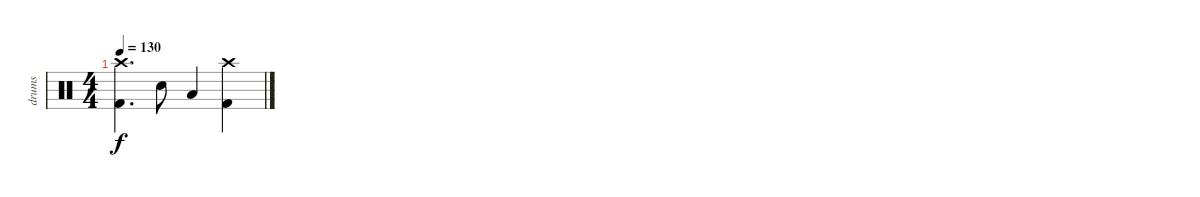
\track ("drums" "drums") {instrument percussion}
\staff {score}
\articulation defaults
\ts (4 4)
\tempo 130
\clef neutral
\ks c
("Crash high (hit)" "Kick (hit) 2").4{d dy f} "Electric Snare (hit)".8 "Low Tom (hit)".4 ("Crash high (hit)" "Kick (hit) 2").4
